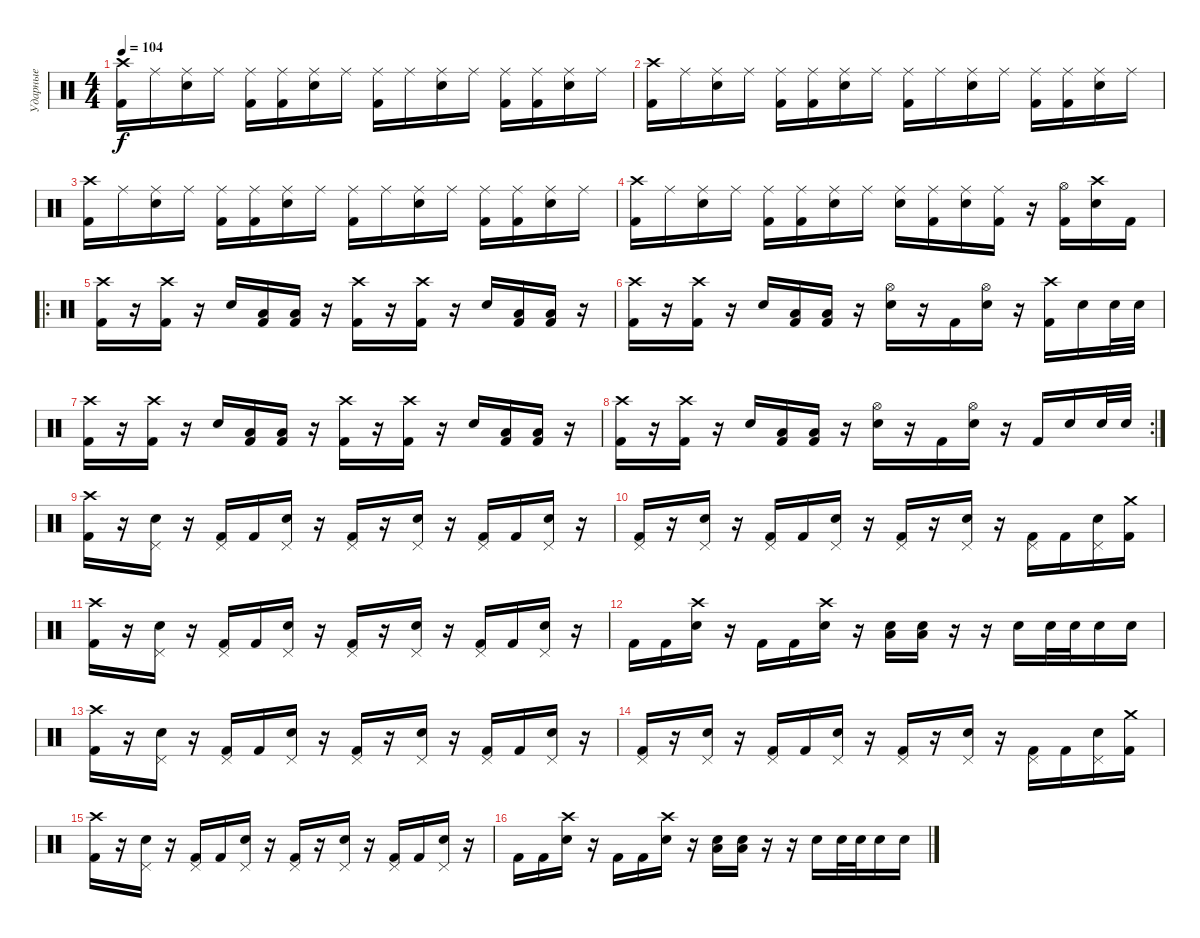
\track ("Ударные" "Ударные") {instrument percussion}
\staff
\articulation defaults
\ts (4 4)
\tempo 104
\clef neutral
\ks c
("Crash high (hit)" "Kick (hit) 2").16{dy f} "Ride (middle)".16 ("Ride (middle)" "Electric Snare (hit)").16 "Ride (middle)".16 ("Ride (middle)" "Kick (hit) 2").16 ("Ride (middle)" "Kick (hit) 2").16 ("Ride (middle)" "Electric Snare (hit)").16 "Ride (middle)".16 ("Ride (middle)" "Kick (hit) 2").16 "Ride (middle)".16 ("Ride (middle)" "Electric Snare (hit)").16 "Ride (middle)".16 ("Ride (middle)" "Kick (hit) 2").16 ("Ride (middle)" "Kick (hit) 2").16 ("Ride (middle)" "Electric Snare (hit)").16 "Ride (middle)".16 |
("Crash high (hit)" "Kick (hit) 2").16 "Ride (middle)".16 ("Ride (middle)" "Electric Snare (hit)").16 "Ride (middle)".16 ("Ride (middle)" "Kick (hit) 2").16 ("Ride (middle)" "Kick (hit) 2").16 ("Ride (middle)" "Electric Snare (hit)").16 "Ride (middle)".16 ("Ride (middle)" "Kick (hit) 2").16 "Ride (middle)".16 ("Ride (middle)" "Electric Snare (hit)").16 "Ride (middle)".16 ("Ride (middle)" "Kick (hit) 2").16 ("Ride (middle)" "Kick (hit) 2").16 ("Ride (middle)" "Electric Snare (hit)").16 "Ride (middle)".16 |
("Crash high (hit)" "Kick (hit) 2").16 "Ride (middle)".16 ("Ride (middle)" "Electric Snare (hit)").16 "Ride (middle)".16 ("Ride (middle)" "Kick (hit) 2").16 ("Ride (middle)" "Kick (hit) 2").16 ("Ride (middle)" "Electric Snare (hit)").16 "Ride (middle)".16 ("Ride (middle)" "Kick (hit) 2").16 "Ride (middle)".16 ("Ride (middle)" "Electric Snare (hit)").16 "Ride (middle)".16 ("Ride (middle)" "Kick (hit) 2").16 ("Ride (middle)" "Kick (hit) 2").16 ("Ride (middle)" "Electric Snare (hit)").16 "Ride (middle)".16 |
("Crash high (hit)" "Kick (hit) 2").16 "Ride (middle)".16 ("Ride (middle)" "Electric Snare (hit)").16 "Ride (middle)".16 ("Ride (middle)" "Kick (hit) 2").16 ("Ride (middle)" "Kick (hit) 2").16 ("Ride (middle)" "Electric Snare (hit)").16 "Ride (middle)".16 ("Ride (middle)" "Electric Snare (hit)").16 ("Ride (middle)" "Kick (hit) 2").16 ("Ride (middle)" "Electric Snare (hit)").16 ("Ride (middle)" "Kick (hit) 2").16 r.16 ("Hi-Hat (open)" "Kick (hit) 2").16 ("Crash high (hit)" "Electric Snare (hit)").16 "Kick (hit) 2".16 |
\ro
("Crash high (hit)" "Kick (hit) 2").16 r.16 ("Crash high (hit)" "Kick (hit) 2").16 r.16 "Electric Snare (hit)".16 ("Low Tom (hit)" "Kick (hit) 2").16 ("Low Tom (hit)" "Kick (hit) 2").16 r.16 ("Crash high (hit)" "Kick (hit) 2").16 r.16 ("Crash high (hit)" "Kick (hit) 2").16 r.16 "Electric Snare (hit)".16 ("Low Tom (hit)" "Kick (hit) 2").16 ("Low Tom (hit)" "Kick (hit) 2").16 r.16 |
("Crash high (hit)" "Kick (hit) 2").16 r.16 ("Crash high (hit)" "Kick (hit) 2").16 r.16 "Electric Snare (hit)".16 ("Low Tom (hit)" "Kick (hit) 2").16 ("Low Tom (hit)" "Kick (hit) 2").16 r.16 ("Hi-Hat (open)" "Electric Snare (hit)").16 r.16 "Kick (hit) 2".16 ("Hi-Hat (open)" "Electric Snare (hit)").16 r.16 ("Crash high (hit)" "Kick (hit) 2").16 "Electric Snare (hit)".16 "Electric Snare (hit)".32 "Electric Snare (hit)".32 |
("Crash high (hit)" "Kick (hit) 2").16 r.16 ("Crash high (hit)" "Kick (hit) 2").16 r.16 "Electric Snare (hit)".16 ("Low Tom (hit)" "Kick (hit) 2").16 ("Low Tom (hit)" "Kick (hit) 2").16 r.16 ("Crash high (hit)" "Kick (hit) 2").16 r.16 ("Crash high (hit)" "Kick (hit) 2").16 r.16 "Electric Snare (hit)".16 ("Low Tom (hit)" "Kick (hit) 2").16 ("Low Tom (hit)" "Kick (hit) 2").16 r.16 |
\rc 2
("Crash high (hit)" "Kick (hit) 2").16 r.16 ("Crash high (hit)" "Kick (hit) 2").16 r.16 "Electric Snare (hit)".16 ("Low Tom (hit)" "Kick (hit) 2").16 ("Low Tom (hit)" "Kick (hit) 2").16 r.16 ("Hi-Hat (open)" "Electric Snare (hit)").16 r.16 "Kick (hit) 2".16 ("Hi-Hat (open)" "Electric Snare (hit)").16 r.16 "Kick (hit) 2".16 "Electric Snare (hit)".16 "Electric Snare (hit)".32 "Electric Snare (hit)".32 |
("Crash high (hit)" "Kick (hit) 2").16 r.16 ("Pedal Hi-Hat (hit)" "Electric Snare (hit)").16 r.16 ("Pedal Hi-Hat (hit)" "Kick (hit) 2").16 "Kick (hit) 2".16 ("Pedal Hi-Hat (hit)" "Electric Snare (hit)").16 r.16 ("Pedal Hi-Hat (hit)" "Kick (hit) 2").16 r.16 ("Pedal Hi-Hat (hit)" "Electric Snare (hit)").16 r.16 ("Pedal Hi-Hat (hit)" "Kick (hit) 2").16 "Kick (hit) 2".16 ("Pedal Hi-Hat (hit)" "Electric Snare (hit)").16 r.16 |
("Pedal Hi-Hat (hit)" "Kick (hit) 2").16 r.16 ("Pedal Hi-Hat (hit)" "Electric Snare (hit)").16 r.16 ("Pedal Hi-Hat (hit)" "Kick (hit) 2").16 "Kick (hit) 2".16 ("Pedal Hi-Hat (hit)" "Electric Snare (hit)").16 r.16 ("Pedal Hi-Hat (hit)" "Kick (hit) 2").16 r.16 ("Pedal Hi-Hat (hit)" "Electric Snare (hit)").16 r.16 ("Pedal Hi-Hat (hit)" "Kick (hit) 2").16 "Kick (hit) 2".16 ("Pedal Hi-Hat (hit)" "Electric Snare (hit)").16 ("Crash medium (hit)" "Kick (hit) 2").16 |
("Crash high (hit)" "Kick (hit) 2").16 r.16 ("Pedal Hi-Hat (hit)" "Electric Snare (hit)").16 r.16 ("Pedal Hi-Hat (hit)" "Kick (hit) 2").16 "Kick (hit) 2".16 ("Pedal Hi-Hat (hit)" "Electric Snare (hit)").16 r.16 ("Pedal Hi-Hat (hit)" "Kick (hit) 2").16 r.16 ("Pedal Hi-Hat (hit)" "Electric Snare (hit)").16 r.16 ("Pedal Hi-Hat (hit)" "Kick (hit) 2").16 "Kick (hit) 2".16 ("Pedal Hi-Hat (hit)" "Electric Snare (hit)").16 r.16 |
"Kick (hit) 2".16 "Kick (hit) 2".16 ("Crash high (hit)" "Electric Snare (hit)").16 r.16 "Kick (hit) 2".16 "Kick (hit) 2".16 ("Crash high (hit)" "Electric Snare (hit)").16 r.16 ("Electric Snare (hit)" "Low Tom (hit)").16 ("Electric Snare (hit)" "Low Tom (hit)").16 r.16 r.16 "Electric Snare (hit)".16 "Electric Snare (hit)".32 "Electric Snare (hit)".32 "Electric Snare (hit)".16 "Electric Snare (hit)".16 |
("Crash high (hit)" "Kick (hit) 2").16 r.16 ("Pedal Hi-Hat (hit)" "Electric Snare (hit)").16 r.16 ("Pedal Hi-Hat (hit)" "Kick (hit) 2").16 "Kick (hit) 2".16 ("Pedal Hi-Hat (hit)" "Electric Snare (hit)").16 r.16 ("Pedal Hi-Hat (hit)" "Kick (hit) 2").16 r.16 ("Pedal Hi-Hat (hit)" "Electric Snare (hit)").16 r.16 ("Pedal Hi-Hat (hit)" "Kick (hit) 2").16 "Kick (hit) 2".16 ("Pedal Hi-Hat (hit)" "Electric Snare (hit)").16 r.16 |
("Pedal Hi-Hat (hit)" "Kick (hit) 2").16 r.16 ("Pedal Hi-Hat (hit)" "Electric Snare (hit)").16 r.16 ("Pedal Hi-Hat (hit)" "Kick (hit) 2").16 "Kick (hit) 2".16 ("Pedal Hi-Hat (hit)" "Electric Snare (hit)").16 r.16 ("Pedal Hi-Hat (hit)" "Kick (hit) 2").16 r.16 ("Pedal Hi-Hat (hit)" "Electric Snare (hit)").16 r.16 ("Pedal Hi-Hat (hit)" "Kick (hit) 2").16 "Kick (hit) 2".16 ("Pedal Hi-Hat (hit)" "Electric Snare (hit)").16 ("Crash medium (hit)" "Kick (hit) 2").16 |
("Crash high (hit)" "Kick (hit) 2").16 r.16 ("Pedal Hi-Hat (hit)" "Electric Snare (hit)").16 r.16 ("Pedal Hi-Hat (hit)" "Kick (hit) 2").16 "Kick (hit) 2".16 ("Pedal Hi-Hat (hit)" "Electric Snare (hit)").16 r.16 ("Pedal Hi-Hat (hit)" "Kick (hit) 2").16 r.16 ("Pedal Hi-Hat (hit)" "Electric Snare (hit)").16 r.16 ("Pedal Hi-Hat (hit)" "Kick (hit) 2").16 "Kick (hit) 2".16 ("Pedal Hi-Hat (hit)" "Electric Snare (hit)").16 r.16 |
"Kick (hit) 2".16 "Kick (hit) 2".16 ("Crash high (hit)" "Electric Snare (hit)").16 r.16 "Kick (hit) 2".16 "Kick (hit) 2".16 ("Crash high (hit)" "Electric Snare (hit)").16 r.16 ("Electric Snare (hit)" "Low Tom (hit)").16 ("Electric Snare (hit)" "Low Tom (hit)").16 r.16 r.16 "Electric Snare (hit)".16 "Electric Snare (hit)".32 "Electric Snare (hit)".32 "Electric Snare (hit)".16 "Electric Snare (hit)".16
